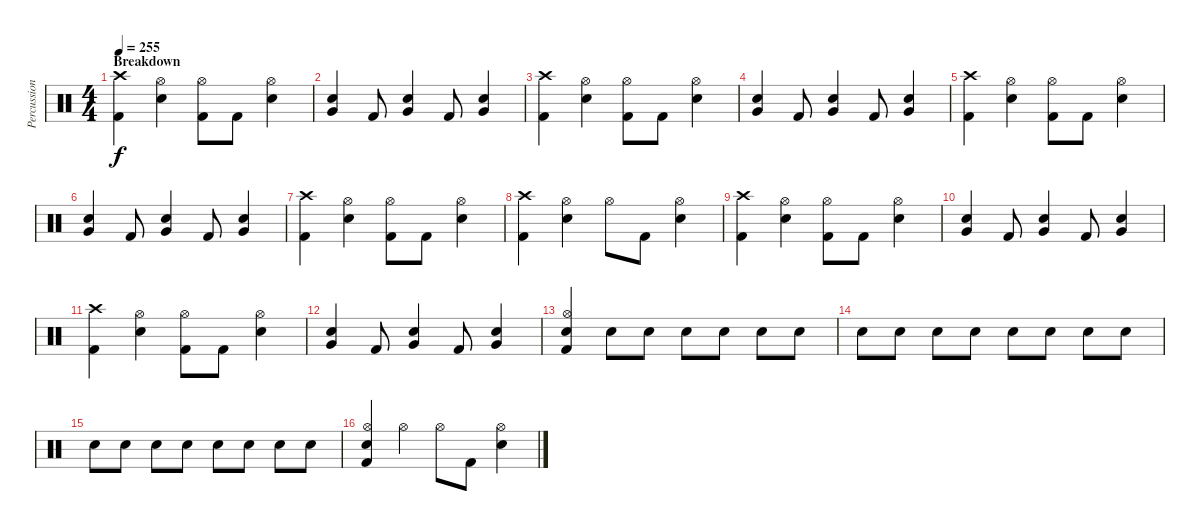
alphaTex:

\track ("Percussion" "Percussion") {instrument percussion}
\staff {score}
\articulation defaults
\ts (4 4)
\section ("" "Breakdown")
\tempo 255
\clef neutral
\ks c
("Crash high (hit)" "Kick (hit) 2").4{dy f} ("Hi-Hat (open)" "Electric Snare (hit)").4 ("Hi-Hat (open)" "Kick (hit) 2").8 "Kick (hit) 2".8 ("Hi-Hat (open)" "Electric Snare (hit)").4 |
("Electric Snare (hit)" "Very Low Tom (hit)").4 "Kick (hit) 2".8 ("Electric Snare (hit)" "Very Low Tom (hit)").4 "Kick (hit) 2".8 ("Electric Snare (hit)" "Very Low Tom (hit)").4 |
("Crash high (hit)" "Kick (hit) 2").4 ("Hi-Hat (open)" "Electric Snare (hit)").4 ("Hi-Hat (open)" "Kick (hit) 2").8 "Kick (hit) 2".8 ("Hi-Hat (open)" "Electric Snare (hit)").4 |
("Electric Snare (hit)" "Very Low Tom (hit)").4 "Kick (hit) 2".8 ("Electric Snare (hit)" "Very Low Tom (hit)").4 "Kick (hit) 2".8 ("Electric Snare (hit)" "Very Low Tom (hit)").4 |
("Crash high (hit)" "Kick (hit) 2").4 ("Hi-Hat (open)" "Electric Snare (hit)").4 ("Hi-Hat (open)" "Kick (hit) 2").8 "Kick (hit) 2".8 ("Hi-Hat (open)" "Electric Snare (hit)").4 |
("Electric Snare (hit)" "Very Low Tom (hit)").4 "Kick (hit) 2".8 ("Electric Snare (hit)" "Very Low Tom (hit)").4 "Kick (hit) 2".8 ("Electric Snare (hit)" "Very Low Tom (hit)").4 |
("Crash high (hit)" "Kick (hit) 2").4 ("Hi-Hat (open)" "Electric Snare (hit)").4 ("Hi-Hat (open)" "Kick (hit) 2").8 "Kick (hit) 2".8 ("Hi-Hat (open)" "Electric Snare (hit)").4 |
("Crash high (hit)" "Kick (hit) 2").4 ("Hi-Hat (open)" "Electric Snare (hit)").4 "Hi-Hat (open)".8 "Kick (hit) 2".8 ("Hi-Hat (open)" "Electric Snare (hit)").4 |
("Crash high (hit)" "Kick (hit) 2").4 ("Hi-Hat (open)" "Electric Snare (hit)").4 ("Hi-Hat (open)" "Kick (hit) 2").8 "Kick (hit) 2".8 ("Hi-Hat (open)" "Electric Snare (hit)").4 |
("Electric Snare (hit)" "Very Low Tom (hit)").4 "Kick (hit) 2".8 ("Electric Snare (hit)" "Very Low Tom (hit)").4 "Kick (hit) 2".8 ("Electric Snare (hit)" "Very Low Tom (hit)").4 |
("Crash high (hit)" "Kick (hit) 2").4 ("Hi-Hat (open)" "Electric Snare (hit)").4 ("Hi-Hat (open)" "Kick (hit) 2").8 "Kick (hit) 2".8 ("Hi-Hat (open)" "Electric Snare (hit)").4 |
("Electric Snare (hit)" "Very Low Tom (hit)").4 "Kick (hit) 2".8 ("Electric Snare (hit)" "Very Low Tom (hit)").4 "Kick (hit) 2".8 ("Electric Snare (hit)" "Very Low Tom (hit)").4 |
("Hi-Hat (open)" "Electric Snare (hit)" "Kick (hit) 2").4 "Electric Snare (hit)".8 "Electric Snare (hit)".8 "Electric Snare (hit)".8 "Electric Snare (hit)".8 "Electric Snare (hit)".8 "Electric Snare (hit)".8 |
"Electric Snare (hit)".8 "Electric Snare (hit)".8 "Electric Snare (hit)".8 "Electric Snare (hit)".8 "Electric Snare (hit)".8 "Electric Snare (hit)".8 "Electric Snare (hit)".8 "Electric Snare (hit)".8 |
"Electric Snare (hit)".8 "Electric Snare (hit)".8 "Electric Snare (hit)".8 "Electric Snare (hit)".8 "Electric Snare (hit)".8 "Electric Snare (hit)".8 "Electric Snare (hit)".8 "Electric Snare (hit)".8 |
("Hi-Hat (open)" "Electric Snare (hit)" "Kick (hit) 2").4 "Hi-Hat (open)".4 "Hi-Hat (open)".8 "Kick (hit) 2".8 ("Hi-Hat (open)" "Electric Snare (hit)").4
